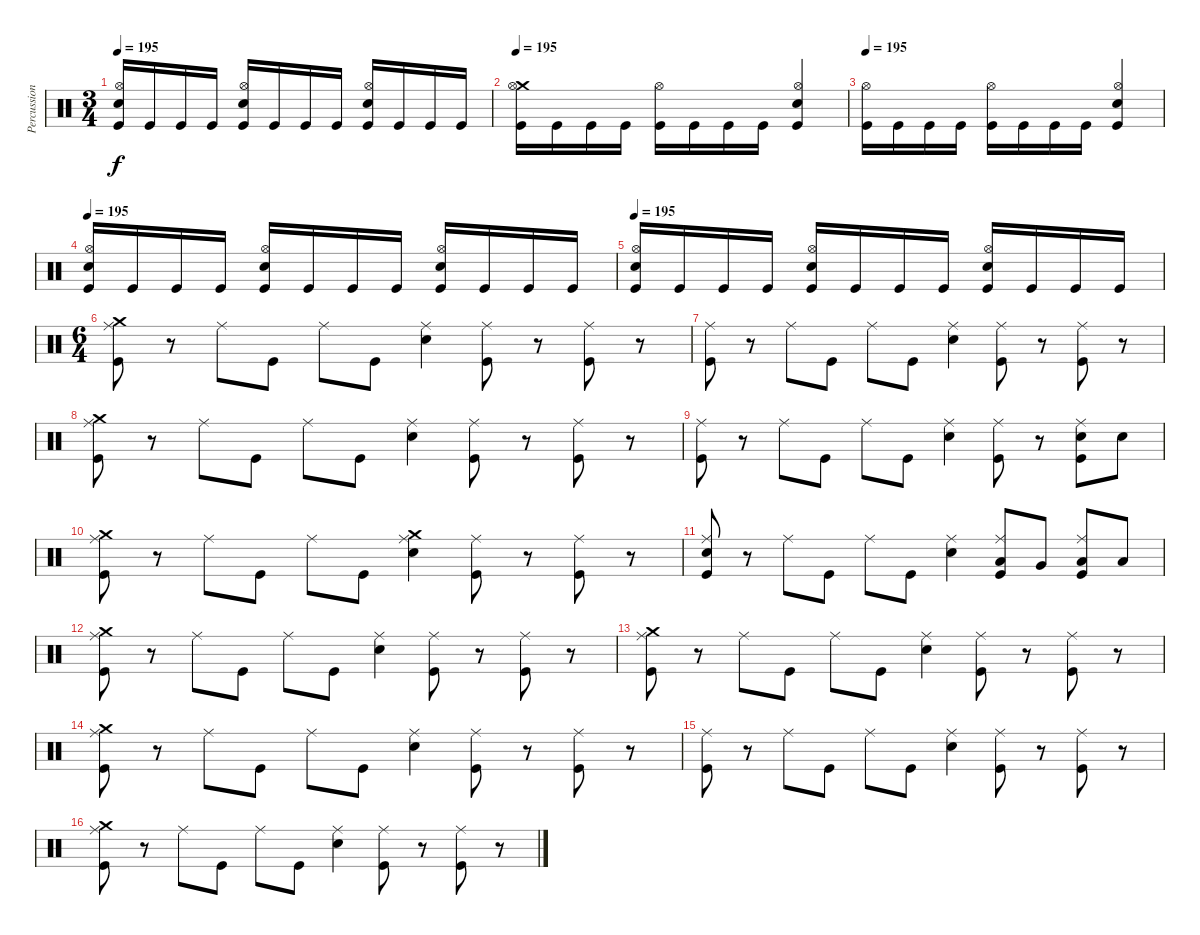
\track ("Percussion" "Percussion") {instrument percussion}
\staff {score}
\articulation defaults
\ts (3 4)
\tempo 195
\clef neutral
\ks c
("Electric Snare (hit)" "Hi-Hat (open)" "Kick (hit)").16{dy f} "Kick (hit)".16 "Kick (hit)".16 "Kick (hit)".16 ("Electric Snare (hit)" "Hi-Hat (open)" "Kick (hit)").16 "Kick (hit)".16 "Kick (hit)".16 "Kick (hit)".16 ("Electric Snare (hit)" "Hi-Hat (open)" "Kick (hit)").16 "Kick (hit)".16 "Kick (hit)".16 "Kick (hit)".16 |
\tempo 195
("Crash medium (hit)" "Hi-Hat (open)" "Kick (hit)").16 "Kick (hit)".16 "Kick (hit)".16 "Kick (hit)".16 ("Hi-Hat (open)" "Kick (hit)").16 "Kick (hit)".16 "Kick (hit)".16 "Kick (hit)".16 ("Electric Snare (hit)" "Hi-Hat (open)" "Kick (hit)").4 |
\tempo 195
("Hi-Hat (open)" "Kick (hit)").16 "Kick (hit)".16 "Kick (hit)".16 "Kick (hit)".16 ("Hi-Hat (open)" "Kick (hit)").16 "Kick (hit)".16 "Kick (hit)".16 "Kick (hit)".16 ("Electric Snare (hit)" "Hi-Hat (open)" "Kick (hit)").4 |
\tempo 195
("Electric Snare (hit)" "Hi-Hat (open)" "Kick (hit)").16 "Kick (hit)".16 "Kick (hit)".16 "Kick (hit)".16 ("Electric Snare (hit)" "Hi-Hat (open)" "Kick (hit)").16 "Kick (hit)".16 "Kick (hit)".16 "Kick (hit)".16 ("Electric Snare (hit)" "Hi-Hat (open)" "Kick (hit)").16 "Kick (hit)".16 "Kick (hit)".16 "Kick (hit)".16 |
\tempo 195
("Electric Snare (hit)" "Hi-Hat (open)" "Kick (hit)").16 "Kick (hit)".16 "Kick (hit)".16 "Kick (hit)".16 ("Electric Snare (hit)" "Hi-Hat (open)" "Kick (hit)").16 "Kick (hit)".16 "Kick (hit)".16 "Kick (hit)".16 ("Electric Snare (hit)" "Hi-Hat (open)" "Kick (hit)").16 "Kick (hit)".16 "Kick (hit)".16 "Kick (hit)".16 |
\ts (6 4)
("Crash medium (hit)" "Ride (middle)" "Kick (hit)").8 r.8 "Ride (middle)".8 "Kick (hit)".8 "Ride (middle)".8 "Kick (hit)".8 ("Ride (middle)" "Electric Snare (hit)").4 ("Ride (middle)" "Kick (hit)").8 r.8 ("Ride (middle)" "Kick (hit)").8 r.8 |
("Ride (middle)" "Kick (hit)").8 r.8 "Ride (middle)".8 "Kick (hit)".8 "Ride (middle)".8 "Kick (hit)".8 ("Ride (middle)" "Electric Snare (hit)").4 ("Ride (middle)" "Kick (hit)").8 r.8 ("Ride (middle)" "Kick (hit)").8 r.8 |
("Crash medium (hit)" "Ride (middle)" "Kick (hit)").8 r.8 "Ride (middle)".8 "Kick (hit)".8 "Ride (middle)".8 "Kick (hit)".8 ("Ride (middle)" "Electric Snare (hit)").4 ("Ride (middle)" "Kick (hit)").8 r.8 ("Ride (middle)" "Kick (hit)").8 r.8 |
("Ride (middle)" "Kick (hit)").8 r.8 "Ride (middle)".8 "Kick (hit)".8 "Ride (middle)".8 "Kick (hit)".8 ("Ride (middle)" "Electric Snare (hit)").4 ("Ride (middle)" "Kick (hit)").8 r.8 ("Ride (middle)" "Electric Snare (hit)" "Kick (hit)").8 "Electric Snare (hit)".8 |
("Crash medium (hit)" "Ride (middle)" "Kick (hit)").8 r.8 "Ride (middle)".8 "Kick (hit)".8 "Ride (middle)".8 "Kick (hit)".8 ("Crash medium (hit)" "Ride (middle)" "Electric Snare (hit)").4 ("Ride (middle)" "Kick (hit)").8 r.8 ("Ride (middle)" "Kick (hit)").8 r.8 |
("Snare (hit)" "Ride (middle)" "Kick (hit)").8 r.8 "Ride (middle)".8 "Kick (hit)".8 "Ride (middle)".8 "Kick (hit)".8 ("Ride (middle)" "Electric Snare (hit)").4 ("Low Tom (hit)" "Ride (middle)" "Kick (hit)").8 "Very Low Tom (hit)".8 ("Low Floor Tom (hit)" "Ride (middle)" "Kick (hit)").8 "Low Floor Tom (hit)".8 |
("Crash medium (hit)" "Ride (middle)" "Kick (hit)").8 r.8 "Ride (middle)".8 "Kick (hit)".8 "Ride (middle)".8 "Kick (hit)".8 ("Ride (middle)" "Electric Snare (hit)").4 ("Ride (middle)" "Kick (hit)").8 r.8 ("Ride (middle)" "Kick (hit)").8 r.8 |
("Crash medium (hit)" "Ride (middle)" "Kick (hit)").8 r.8 "Ride (middle)".8 "Kick (hit)".8 "Ride (middle)".8 "Kick (hit)".8 ("Ride (middle)" "Electric Snare (hit)").4 ("Ride (middle)" "Kick (hit)").8 r.8 ("Ride (middle)" "Kick (hit)").8 r.8 |
("Crash medium (hit)" "Ride (middle)" "Kick (hit)").8 r.8 "Ride (middle)".8 "Kick (hit)".8 "Ride (middle)".8 "Kick (hit)".8 ("Ride (middle)" "Electric Snare (hit)").4 ("Ride (middle)" "Kick (hit)").8 r.8 ("Ride (middle)" "Kick (hit)").8 r.8 |
("Ride (middle)" "Kick (hit)").8 r.8 "Ride (middle)".8 "Kick (hit)".8 "Ride (middle)".8 "Kick (hit)".8 ("Ride (middle)" "Electric Snare (hit)").4 ("Ride (middle)" "Kick (hit)").8 r.8 ("Ride (middle)" "Kick (hit)").8 r.8 |
("Crash medium (hit)" "Ride (middle)" "Kick (hit)").8 r.8 "Ride (middle)".8 "Kick (hit)".8 "Ride (middle)".8 "Kick (hit)".8 ("Ride (middle)" "Electric Snare (hit)").4 ("Ride (middle)" "Kick (hit)").8 r.8 ("Ride (middle)" "Kick (hit)").8 r.8
